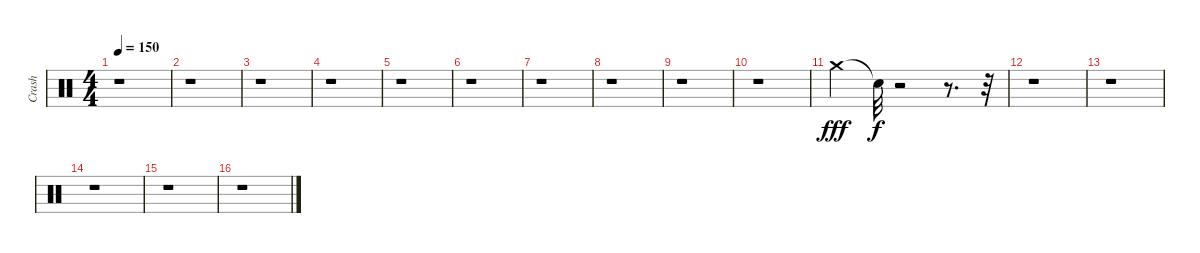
\track ("Crash" "Crash") {instrument percussion}
\staff {score}
\articulation defaults
\ts (4 4)
\tempo 150
\clef neutral
\ks c
r.1{dy f} |
r.1 |
r.1 |
r.1 |
r.1 |
r.1 |
r.1 |
r.1 |
r.1 |
r.1 |
"Crash medium (hit)".4{dy fff} "Snare (hit)"{t}.32{dy f} r.2 r.8{d} r.32 |
r.1 |
r.1 |
r.1 |
r.1 |
r.1
